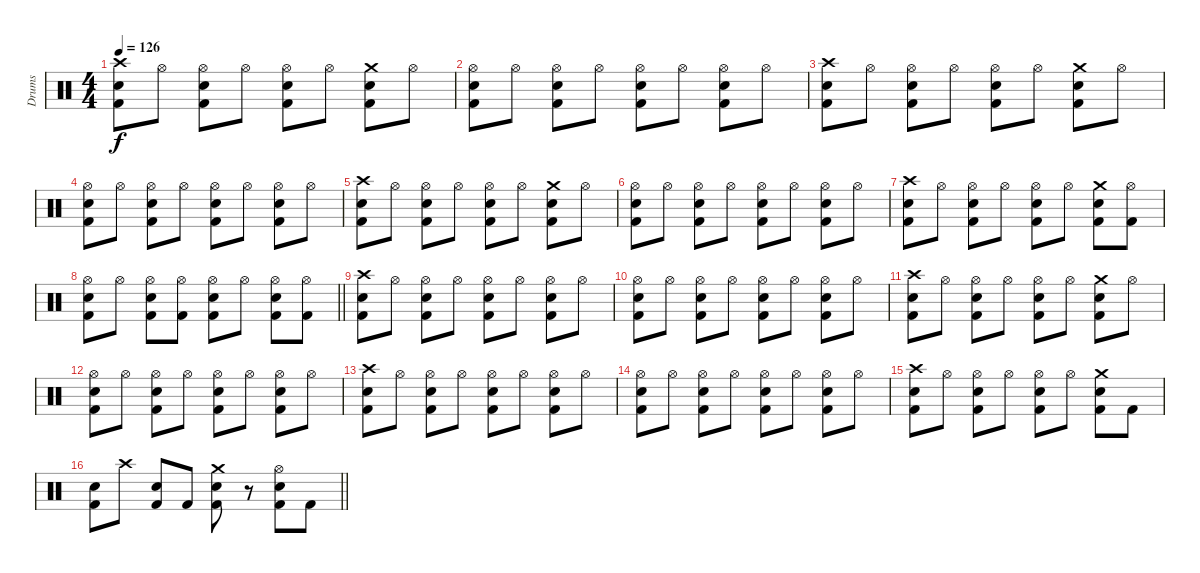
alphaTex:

\track ("Drums" "Drums") {instrument percussion}
\staff {score}
\articulation defaults
\ts (4 4)
\tempo 126
\clef neutral
\ks c
("Crash high (hit)" "Kick (hit) 2" "Electric Snare (hit)").8{dy f} "Hi-Hat (open)".8 ("Hi-Hat (open)" "Kick (hit) 2" "Electric Snare (hit)").8 "Hi-Hat (open)".8 ("Hi-Hat (open)" "Kick (hit) 2" "Electric Snare (hit)").8 "Hi-Hat (open)".8 ("Crash medium (hit)" "Kick (hit) 2" "Electric Snare (hit)").8 "Hi-Hat (open)".8 |
("Hi-Hat (open)" "Kick (hit) 2" "Electric Snare (hit)").8 "Hi-Hat (open)".8 ("Hi-Hat (open)" "Kick (hit) 2" "Electric Snare (hit)").8 "Hi-Hat (open)".8 ("Hi-Hat (open)" "Kick (hit) 2" "Electric Snare (hit)").8 "Hi-Hat (open)".8 ("Hi-Hat (open)" "Kick (hit) 2" "Electric Snare (hit)").8 "Hi-Hat (open)".8 |
("Crash high (hit)" "Kick (hit) 2" "Electric Snare (hit)").8 "Hi-Hat (open)".8 ("Hi-Hat (open)" "Kick (hit) 2" "Electric Snare (hit)").8 "Hi-Hat (open)".8 ("Hi-Hat (open)" "Kick (hit) 2" "Electric Snare (hit)").8 "Hi-Hat (open)".8 ("Crash medium (hit)" "Kick (hit) 2" "Electric Snare (hit)").8 "Hi-Hat (open)".8 |
("Hi-Hat (open)" "Kick (hit) 2" "Electric Snare (hit)").8 "Hi-Hat (open)".8 ("Hi-Hat (open)" "Kick (hit) 2" "Electric Snare (hit)").8 "Hi-Hat (open)".8 ("Hi-Hat (open)" "Kick (hit) 2" "Electric Snare (hit)").8 "Hi-Hat (open)".8 ("Hi-Hat (open)" "Kick (hit) 2" "Electric Snare (hit)").8 "Hi-Hat (open)".8 |
("Crash high (hit)" "Kick (hit) 2" "Electric Snare (hit)").8 "Hi-Hat (open)".8 ("Hi-Hat (open)" "Kick (hit) 2" "Electric Snare (hit)").8 "Hi-Hat (open)".8 ("Hi-Hat (open)" "Kick (hit) 2" "Electric Snare (hit)").8 "Hi-Hat (open)".8 ("Crash medium (hit)" "Kick (hit) 2" "Electric Snare (hit)").8 "Hi-Hat (open)".8 |
("Hi-Hat (open)" "Kick (hit) 2" "Electric Snare (hit)").8 "Hi-Hat (open)".8 ("Hi-Hat (open)" "Kick (hit) 2" "Electric Snare (hit)").8 "Hi-Hat (open)".8 ("Hi-Hat (open)" "Kick (hit) 2" "Electric Snare (hit)").8 "Hi-Hat (open)".8 ("Hi-Hat (open)" "Kick (hit) 2" "Electric Snare (hit)").8 "Hi-Hat (open)".8 |
("Crash high (hit)" "Kick (hit) 2" "Electric Snare (hit)").8 "Hi-Hat (open)".8 ("Hi-Hat (open)" "Kick (hit) 2" "Electric Snare (hit)").8 "Hi-Hat (open)".8 ("Hi-Hat (open)" "Kick (hit) 2" "Electric Snare (hit)").8 "Hi-Hat (open)".8 ("Crash medium (hit)" "Kick (hit) 2" "Electric Snare (hit)").8 ("Hi-Hat (open)" "Kick (hit) 2").8 |
\barLineRight lightlight
("Hi-Hat (open)" "Kick (hit) 2" "Electric Snare (hit)").8 "Hi-Hat (open)".8 ("Hi-Hat (open)" "Kick (hit) 2" "Electric Snare (hit)").8 ("Hi-Hat (open)" "Kick (hit) 2").8 ("Hi-Hat (open)" "Kick (hit) 2" "Electric Snare (hit)").8 "Hi-Hat (open)".8 ("Hi-Hat (open)" "Kick (hit) 2" "Electric Snare (hit)").8 ("Hi-Hat (open)" "Kick (hit) 2").8 |
("Crash high (hit)" "Kick (hit) 2" "Electric Snare (hit)").8 "Hi-Hat (open)".8 ("Hi-Hat (open)" "Kick (hit) 2" "Electric Snare (hit)").8 "Hi-Hat (open)".8 ("Hi-Hat (open)" "Kick (hit) 2" "Electric Snare (hit)").8 "Hi-Hat (open)".8 ("Hi-Hat (open)" "Kick (hit) 2" "Electric Snare (hit)").8 "Hi-Hat (open)".8 |
("Hi-Hat (open)" "Kick (hit) 2" "Electric Snare (hit)").8 "Hi-Hat (open)".8 ("Hi-Hat (open)" "Kick (hit) 2" "Electric Snare (hit)").8 "Hi-Hat (open)".8 ("Hi-Hat (open)" "Kick (hit) 2" "Electric Snare (hit)").8 "Hi-Hat (open)".8 ("Hi-Hat (open)" "Kick (hit) 2" "Electric Snare (hit)").8 "Hi-Hat (open)".8 |
("Crash high (hit)" "Kick (hit) 2" "Electric Snare (hit)").8 "Hi-Hat (open)".8 ("Hi-Hat (open)" "Kick (hit) 2" "Electric Snare (hit)").8 "Hi-Hat (open)".8 ("Hi-Hat (open)" "Kick (hit) 2" "Electric Snare (hit)").8 "Hi-Hat (open)".8 ("Crash medium (hit)" "Kick (hit) 2" "Electric Snare (hit)").8 "Hi-Hat (open)".8 |
("Hi-Hat (open)" "Kick (hit) 2" "Electric Snare (hit)").8 "Hi-Hat (open)".8 ("Hi-Hat (open)" "Kick (hit) 2" "Electric Snare (hit)").8 "Hi-Hat (open)".8 ("Hi-Hat (open)" "Kick (hit) 2" "Electric Snare (hit)").8 "Hi-Hat (open)".8 ("Hi-Hat (open)" "Kick (hit) 2" "Electric Snare (hit)").8 "Hi-Hat (open)".8 |
("Crash high (hit)" "Kick (hit) 2" "Electric Snare (hit)").8 "Hi-Hat (open)".8 ("Hi-Hat (open)" "Kick (hit) 2" "Electric Snare (hit)").8 "Hi-Hat (open)".8 ("Hi-Hat (open)" "Kick (hit) 2" "Electric Snare (hit)").8 "Hi-Hat (open)".8 ("Hi-Hat (open)" "Kick (hit) 2" "Electric Snare (hit)").8 "Hi-Hat (open)".8 |
("Hi-Hat (open)" "Kick (hit) 2" "Electric Snare (hit)").8 "Hi-Hat (open)".8 ("Hi-Hat (open)" "Kick (hit) 2" "Electric Snare (hit)").8 "Hi-Hat (open)".8 ("Hi-Hat (open)" "Kick (hit) 2" "Electric Snare (hit)").8 "Hi-Hat (open)".8 ("Hi-Hat (open)" "Kick (hit) 2" "Electric Snare (hit)").8 "Hi-Hat (open)".8 |
("Crash high (hit)" "Kick (hit) 2" "Electric Snare (hit)").8 "Hi-Hat (open)".8 ("Hi-Hat (open)" "Kick (hit) 2" "Electric Snare (hit)").8 "Hi-Hat (open)".8 ("Hi-Hat (open)" "Kick (hit) 2" "Electric Snare (hit)").8 "Hi-Hat (open)".8 ("Crash medium (hit)" "Kick (hit) 2" "Electric Snare (hit)").8 "Kick (hit) 2".8 |
\barLineRight lightlight
("Kick (hit) 2" "Electric Snare (hit)").8 "Crash high (hit)".8 ("Kick (hit) 2" "Electric Snare (hit)").8 "Kick (hit) 2".8 ("Crash medium (hit)" "Kick (hit) 2" "Electric Snare (hit)").8 r.8 ("Hi-Hat (open)" "Kick (hit) 2" "Electric Snare (hit)").8 "Kick (hit) 2".8
